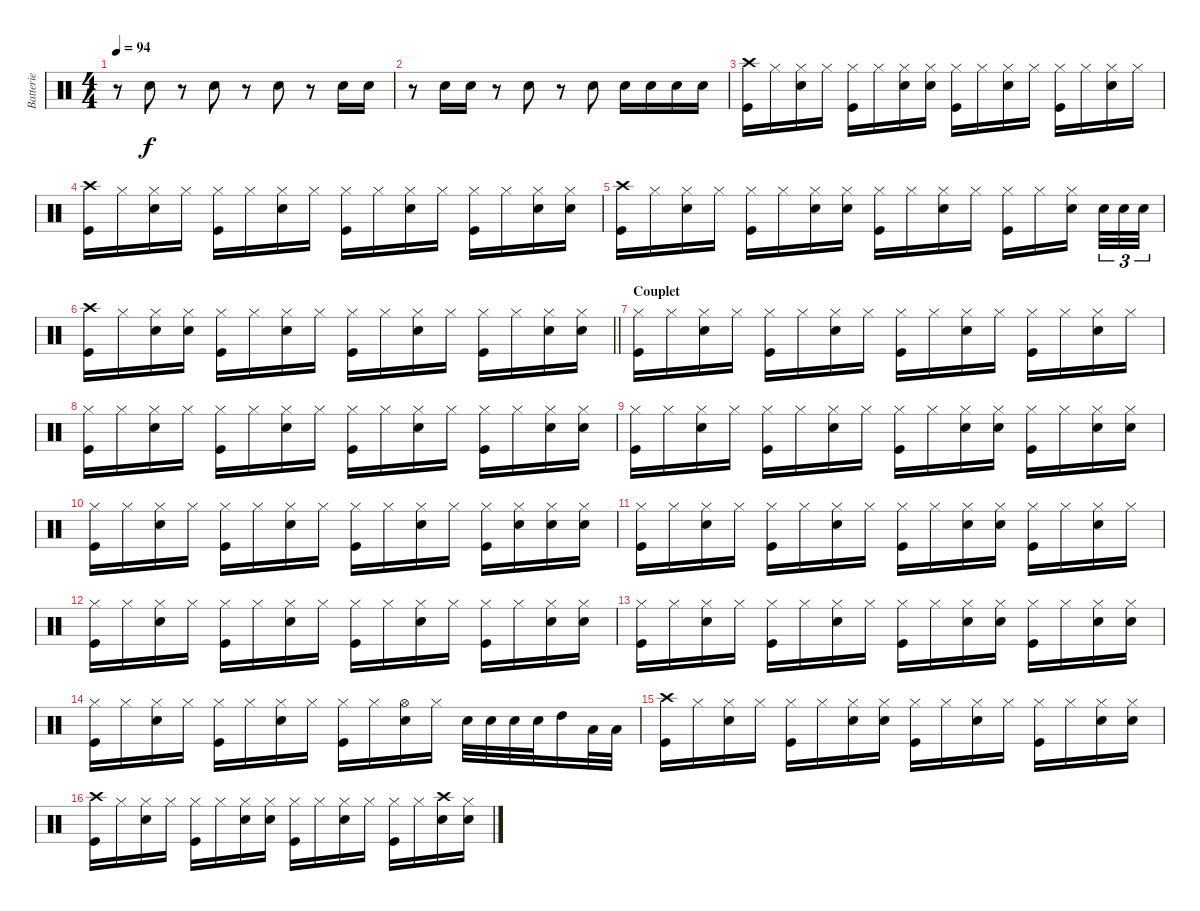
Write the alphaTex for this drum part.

\track ("Batterie" "Batterie") {instrument percussion}
\staff {score}
\articulation defaults
\ts (4 4)
\tempo 94
\clef neutral
\ks c
r.8{dy f} "Snare (hit) 2".8 r.8 "Snare (hit) 2".8 r.8 "Snare (hit) 2".8 r.8 "Snare (hit) 2".16 "Snare (hit) 2".16 |
r.8 "Snare (hit) 2".16 "Snare (hit) 2".16 r.8 "Snare (hit) 2".8 r.8 "Snare (hit) 2".8 "Snare (hit) 2".16 "Snare (hit) 2".16 "Snare (hit) 2".16 "Snare (hit) 2".16 |
("Crash high (hit)" "Kick (hit)").16 "Hi-Hat (closed)".16 ("Hi-Hat (closed)" "Snare (hit) 2").16 "Hi-Hat (closed)".16 ("Hi-Hat (closed)" "Kick (hit)").16 "Hi-Hat (closed)".16 ("Hi-Hat (closed)" "Snare (hit) 2").16 ("Hi-Hat (closed)" "Snare (hit) 2").16 ("Hi-Hat (closed)" "Kick (hit)").16 "Hi-Hat (closed)".16 ("Hi-Hat (closed)" "Snare (hit) 2").16 "Hi-Hat (closed)".16 ("Hi-Hat (closed)" "Kick (hit)").16 "Hi-Hat (closed)".16 ("Hi-Hat (closed)" "Snare (hit) 2").16 "Hi-Hat (closed)".16 |
("Crash high (hit)" "Kick (hit)").16 "Hi-Hat (closed)".16 ("Hi-Hat (closed)" "Snare (hit) 2").16 "Hi-Hat (closed)".16 ("Hi-Hat (closed)" "Kick (hit)").16 "Hi-Hat (closed)".16 ("Hi-Hat (closed)" "Snare (hit) 2").16 "Hi-Hat (closed)".16 ("Hi-Hat (closed)" "Kick (hit)").16 "Hi-Hat (closed)".16 ("Hi-Hat (closed)" "Snare (hit) 2").16 "Hi-Hat (closed)".16 ("Hi-Hat (closed)" "Kick (hit)").16 "Hi-Hat (closed)".16 ("Hi-Hat (closed)" "Snare (hit) 2").16 ("Hi-Hat (closed)" "Snare (hit) 2").16 |
("Crash high (hit)" "Kick (hit)").16 "Hi-Hat (closed)".16 ("Hi-Hat (closed)" "Snare (hit) 2").16 "Hi-Hat (closed)".16 ("Hi-Hat (closed)" "Kick (hit)").16 "Hi-Hat (closed)".16 ("Hi-Hat (closed)" "Snare (hit) 2").16 ("Hi-Hat (closed)" "Snare (hit) 2").16 ("Hi-Hat (closed)" "Kick (hit)").16 "Hi-Hat (closed)".16 ("Hi-Hat (closed)" "Snare (hit) 2").16 "Hi-Hat (closed)".16 ("Hi-Hat (closed)" "Kick (hit)").16 "Hi-Hat (closed)".16 ("Hi-Hat (closed)" "Snare (hit) 2").16 "Snare (hit) 2".32{tu (3 2)} "Snare (hit) 2".32{tu (3 2)} "Snare (hit) 2".32{tu (3 2)} |
\barLineRight lightlight
("Crash high (hit)" "Kick (hit)").16 "Hi-Hat (closed)".16 ("Hi-Hat (closed)" "Snare (hit) 2").16 ("Snare (hit) 2" "Hi-Hat (closed)").16 ("Hi-Hat (closed)" "Kick (hit)").16 "Hi-Hat (closed)".16 ("Hi-Hat (closed)" "Snare (hit) 2").16 "Hi-Hat (closed)".16 ("Hi-Hat (closed)" "Kick (hit)").16 "Hi-Hat (closed)".16 ("Hi-Hat (closed)" "Snare (hit) 2").16 "Hi-Hat (closed)".16 ("Hi-Hat (closed)" "Kick (hit)").16 "Hi-Hat (closed)".16 ("Hi-Hat (closed)" "Snare (hit) 2").16 ("Hi-Hat (closed)" "Snare (hit) 2").16 |
\section ("" "Couplet")
("Hi-Hat (closed)" "Kick (hit)").16 "Hi-Hat (closed)".16 ("Hi-Hat (closed)" "Snare (hit) 2").16 "Hi-Hat (closed)".16 ("Hi-Hat (closed)" "Kick (hit)").16 "Hi-Hat (closed)".16 ("Hi-Hat (closed)" "Snare (hit) 2").16 "Hi-Hat (closed)".16 ("Hi-Hat (closed)" "Kick (hit)").16 "Hi-Hat (closed)".16 ("Hi-Hat (closed)" "Snare (hit) 2").16 "Hi-Hat (closed)".16 ("Hi-Hat (closed)" "Kick (hit)").16 "Hi-Hat (closed)".16 ("Hi-Hat (closed)" "Snare (hit) 2").16 "Hi-Hat (closed)".16 |
("Hi-Hat (closed)" "Kick (hit)").16 "Hi-Hat (closed)".16 ("Hi-Hat (closed)" "Snare (hit) 2").16 "Hi-Hat (closed)".16 ("Hi-Hat (closed)" "Kick (hit)").16 "Hi-Hat (closed)".16 ("Hi-Hat (closed)" "Snare (hit) 2").16 "Hi-Hat (closed)".16 ("Hi-Hat (closed)" "Kick (hit)").16 "Hi-Hat (closed)".16 ("Hi-Hat (closed)" "Snare (hit) 2").16 "Hi-Hat (closed)".16 ("Hi-Hat (closed)" "Kick (hit)").16 "Hi-Hat (closed)".16 ("Hi-Hat (closed)" "Snare (hit) 2").16 ("Hi-Hat (closed)" "Snare (hit) 2").16 |
("Hi-Hat (closed)" "Kick (hit)").16 "Hi-Hat (closed)".16 ("Hi-Hat (closed)" "Snare (hit) 2").16 "Hi-Hat (closed)".16 ("Hi-Hat (closed)" "Kick (hit)").16 "Hi-Hat (closed)".16 ("Hi-Hat (closed)" "Snare (hit) 2").16 "Hi-Hat (closed)".16 ("Hi-Hat (closed)" "Kick (hit)").16 "Hi-Hat (closed)".16 ("Hi-Hat (closed)" "Snare (hit) 2").16 ("Hi-Hat (closed)" "Snare (hit) 2").16 ("Hi-Hat (closed)" "Kick (hit)").16 "Hi-Hat (closed)".16 ("Hi-Hat (closed)" "Snare (hit) 2").16 ("Hi-Hat (closed)" "Snare (hit) 2").16 |
("Hi-Hat (closed)" "Kick (hit)").16 "Hi-Hat (closed)".16 ("Hi-Hat (closed)" "Snare (hit) 2").16 "Hi-Hat (closed)".16 ("Hi-Hat (closed)" "Kick (hit)").16 "Hi-Hat (closed)".16 ("Hi-Hat (closed)" "Snare (hit) 2").16 "Hi-Hat (closed)".16 ("Hi-Hat (closed)" "Kick (hit)").16 "Hi-Hat (closed)".16 ("Hi-Hat (closed)" "Snare (hit) 2").16 "Hi-Hat (closed)".16 ("Hi-Hat (closed)" "Kick (hit)").16 ("Hi-Hat (closed)" "Snare (hit) 2").16 ("Hi-Hat (closed)" "Snare (hit) 2").16 ("Hi-Hat (closed)" "Snare (hit) 2").16 |
("Hi-Hat (closed)" "Kick (hit)").16 "Hi-Hat (closed)".16 ("Hi-Hat (closed)" "Snare (hit) 2").16 "Hi-Hat (closed)".16 ("Hi-Hat (closed)" "Kick (hit)").16 "Hi-Hat (closed)".16 ("Hi-Hat (closed)" "Snare (hit) 2").16 "Hi-Hat (closed)".16 ("Hi-Hat (closed)" "Kick (hit)").16 "Hi-Hat (closed)".16 ("Hi-Hat (closed)" "Snare (hit) 2").16 ("Hi-Hat (closed)" "Snare (hit) 2").16 ("Hi-Hat (closed)" "Kick (hit)").16 "Hi-Hat (closed)".16 ("Hi-Hat (closed)" "Snare (hit) 2").16 "Hi-Hat (closed)".16 |
("Hi-Hat (closed)" "Kick (hit)").16 "Hi-Hat (closed)".16 ("Hi-Hat (closed)" "Snare (hit) 2").16 "Hi-Hat (closed)".16 ("Hi-Hat (closed)" "Kick (hit)").16 "Hi-Hat (closed)".16 ("Hi-Hat (closed)" "Snare (hit) 2").16 "Hi-Hat (closed)".16 ("Hi-Hat (closed)" "Kick (hit)").16 "Hi-Hat (closed)".16 ("Hi-Hat (closed)" "Snare (hit) 2").16 "Hi-Hat (closed)".16 ("Hi-Hat (closed)" "Kick (hit)").16 "Hi-Hat (closed)".16 ("Hi-Hat (closed)" "Snare (hit) 2").16 ("Hi-Hat (closed)" "Snare (hit) 2").16 |
("Hi-Hat (closed)" "Kick (hit)").16 "Hi-Hat (closed)".16 ("Hi-Hat (closed)" "Snare (hit) 2").16 "Hi-Hat (closed)".16 ("Hi-Hat (closed)" "Kick (hit)").16 "Hi-Hat (closed)".16 ("Hi-Hat (closed)" "Snare (hit) 2").16 "Hi-Hat (closed)".16 ("Hi-Hat (closed)" "Kick (hit)").16 "Hi-Hat (closed)".16 ("Hi-Hat (closed)" "Snare (hit) 2").16 ("Hi-Hat (closed)" "Snare (hit) 2").16 ("Hi-Hat (closed)" "Kick (hit)").16 "Hi-Hat (closed)".16 ("Hi-Hat (closed)" "Snare (hit) 2").16 ("Hi-Hat (closed)" "Snare (hit) 2").16 |
("Hi-Hat (closed)" "Kick (hit)").16 "Hi-Hat (closed)".16 ("Hi-Hat (closed)" "Snare (hit) 2").16 "Hi-Hat (closed)".16 ("Hi-Hat (closed)" "Kick (hit)").16 "Hi-Hat (closed)".16 ("Hi-Hat (closed)" "Snare (hit) 2").16 "Hi-Hat (closed)".16 ("Hi-Hat (closed)" "Kick (hit)").16 "Hi-Hat (closed)".16 ("Hi-Hat (open)" "Snare (hit) 2").16 "Hi-Hat (closed)".16 "Snare (hit) 2".32 "Snare (hit) 2".32 "Snare (hit) 2".32 "Snare (hit) 2".32 "High Tom (hit)".16 "Low Floor Tom (hit)".32 "Low Floor Tom (hit)".32 |
("Crash high (hit)" "Kick (hit)").16 "Hi-Hat (closed)".16 ("Hi-Hat (closed)" "Snare (hit) 2").16 "Hi-Hat (closed)".16 ("Hi-Hat (closed)" "Kick (hit)").16 "Hi-Hat (closed)".16 ("Hi-Hat (closed)" "Snare (hit) 2").16 ("Hi-Hat (closed)" "Snare (hit) 2").16 ("Hi-Hat (closed)" "Kick (hit)").16 "Hi-Hat (closed)".16 ("Hi-Hat (closed)" "Snare (hit) 2").16 "Hi-Hat (closed)".16 ("Hi-Hat (closed)" "Kick (hit)").16 "Hi-Hat (closed)".16 ("Hi-Hat (closed)" "Snare (hit) 2").16 ("Hi-Hat (closed)" "Snare (hit) 2").16 |
("Crash high (hit)" "Kick (hit)").16 "Hi-Hat (closed)".16 ("Hi-Hat (closed)" "Snare (hit) 2").16 "Hi-Hat (closed)".16 ("Hi-Hat (closed)" "Kick (hit)").16 "Hi-Hat (closed)".16 ("Hi-Hat (closed)" "Snare (hit) 2").16 ("Hi-Hat (closed)" "Snare (hit) 2").16 ("Hi-Hat (closed)" "Kick (hit)").16 "Hi-Hat (closed)".16 ("Hi-Hat (closed)" "Snare (hit) 2").16 "Hi-Hat (closed)".16 ("Hi-Hat (closed)" "Kick (hit)").16 "Hi-Hat (closed)".16 ("Crash high (hit)" "Snare (hit) 2").16 ("Hi-Hat (closed)" "Snare (hit) 2").16
